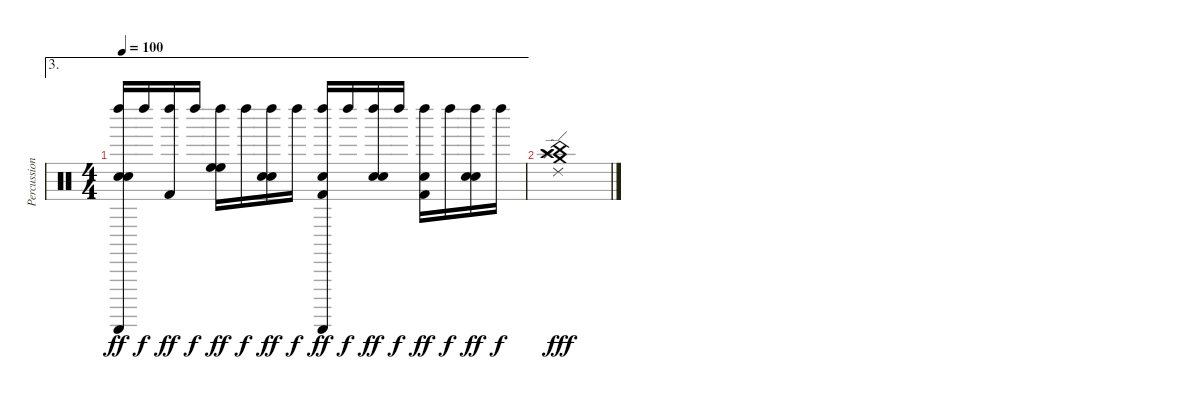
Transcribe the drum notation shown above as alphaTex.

\track ("Percussions" "Percussion") {instrument percussion}
\staff {score}
\articulation defaults
\ae 3
\ts (4 4)
\tempo 100
\clef neutral
\ks c
("Guiro (scrap-return)" "Left Maraca (hit)" "Snare (hit) 2" "Snare (hit) 2").16{dy ff} "Left Maraca (hit)".16{dy f} ("Left Maraca (hit)" "Kick (hit) 2").16{dy ff} "Left Maraca (hit)".16{dy f} ("Left Maraca (hit)" "High Floor Tom (hit)" "High Floor Tom (hit)").16{dy ff} "Left Maraca (hit)".16{dy f} ("Left Maraca (hit)" "Snare (hit) 2" "Snare (hit) 2").16{dy ff} "Left Maraca (hit)".16{dy f} ("Guiro (scrap-return)" "Left Maraca (hit)" "Snare (hit) 2" "Kick (hit) 2").16{dy ff} "Left Maraca (hit)".16{dy f} ("Left Maraca (hit)" "Snare (hit) 2" "Snare (hit) 2").16{dy ff} "Left Maraca (hit)".16{dy f} ("Left Maraca (hit)" "Snare (hit) 2" "Kick (hit) 2").16{dy ff} "Left Maraca (hit)".16{dy f} ("Left Maraca (hit)" "Snare (hit) 2" "Snare (hit) 2").16{dy ff} "Left Maraca (hit)".16{dy f} |
("Crash high (hit)" "China (hit)" "Splash (hit)" "Crash medium (hit)" "Ride (edge) 2").1{dy fff}
